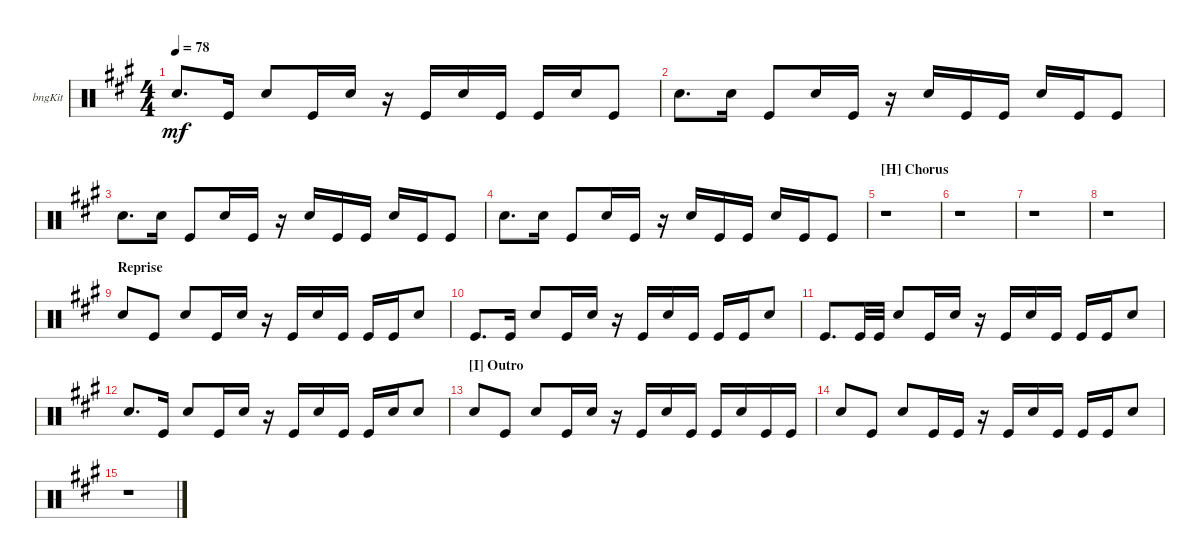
\defaultSystemsLayout 4
\bracketExtendMode groupsimilarinstruments
\firstSystemTrackNameOrientation horizontal
\otherSystemsTrackNameOrientation horizontal
\track ("Bongos" "bngKit") {instrument percussion}
\staff {score}
\articulation defaults
\ts (4 4)
\tempo 78
\clef neutral
\ks a "Snare (hit) 2".8{d dy mf} "Kick (hit)".16 "Snare (hit) 2".8 "Kick (hit)".16 "Snare (hit) 2".16
r.16 "Kick (hit)".16 "Snare (hit) 2".16 "Kick (hit)".16 "Kick (hit)".16 "Snare (hit) 2".16 "Kick (hit)".8 |
"Snare (hit) 2".8{d} "Snare (hit) 2".16 "Kick (hit)".8 "Snare (hit) 2".16 "Kick (hit)".16 r.16 "Snare (hit) 2".16 "Kick (hit)".16 "Kick (hit)".16 "Snare (hit) 2".16 "Kick (hit)".16 "Kick (hit)".8 |
"Snare (hit) 2".8{d} "Snare (hit) 2".16 "Kick (hit)".8 "Snare (hit) 2".16 "Kick (hit)".16 r.16 "Snare (hit) 2".16 "Kick (hit)".16 "Kick (hit)".16 "Snare (hit) 2".16 "Kick (hit)".16 "Kick (hit)".8 |
"Snare (hit) 2".8{d} "Snare (hit) 2".16 "Kick (hit)".8 "Snare (hit) 2".16 "Kick (hit)".16 r.16 "Snare (hit) 2".16 "Kick (hit)".16 "Kick (hit)".16 "Snare (hit) 2".16 "Kick (hit)".16 "Kick (hit)".8 |
\section ("H" "Chorus")
r.1 |
r.1 |
r.1 |
r.1 |
\section ("" "Reprise")
"Snare (hit) 2".8 "Kick (hit)".8 "Snare (hit) 2".8 "Kick (hit)".16 "Snare (hit) 2".16 r.16 "Kick (hit)".16 "Snare (hit) 2".16 "Kick (hit)".16 "Kick (hit)".16 "Kick (hit)".16 "Snare (hit) 2".8 |
"Kick (hit)".8{d} "Kick (hit)".16 "Snare (hit) 2".8 "Kick (hit)".16 "Snare (hit) 2".16 r.16 "Kick (hit)".16 "Snare (hit) 2".16 "Kick (hit)".16 "Kick (hit)".16 "Kick (hit)".16 "Snare (hit) 2".8 |
"Kick (hit)".8{d} "Kick (hit)".32 "Kick (hit)".32 "Snare (hit) 2".8 "Kick (hit)".16 "Snare (hit) 2".16 r.16 "Kick (hit)".16 "Snare (hit) 2".16 "Kick (hit)".16 "Kick (hit)".16 "Kick (hit)".16 "Snare (hit) 2".8 |
"Snare (hit) 2".8{d} "Kick (hit)".16 "Snare (hit) 2".8 "Kick (hit)".16 "Snare (hit) 2".16 r.16 "Kick (hit)".16 "Snare (hit) 2".16 "Kick (hit)".16 "Kick (hit)".16 "Snare (hit) 2".16 "Snare (hit) 2".8 |
\section ("I" "Outro")
"Snare (hit) 2".8 "Kick (hit)".8 "Snare (hit) 2".8 "Kick (hit)".16 "Snare (hit) 2".16 r.16 "Kick (hit)".16 "Snare (hit) 2".16 "Kick (hit)".16 "Kick (hit)".16 "Snare (hit) 2".16 "Kick (hit)".16 "Kick (hit)".16 |
"Snare (hit) 2".8 "Kick (hit)".8 "Snare (hit) 2".8 "Kick (hit)".16 "Kick (hit)".16 r.16 "Kick (hit)".16 "Snare (hit) 2".16 "Kick (hit)".16 "Kick (hit)".16 "Kick (hit)".16 "Snare (hit) 2".8 |
r.1
